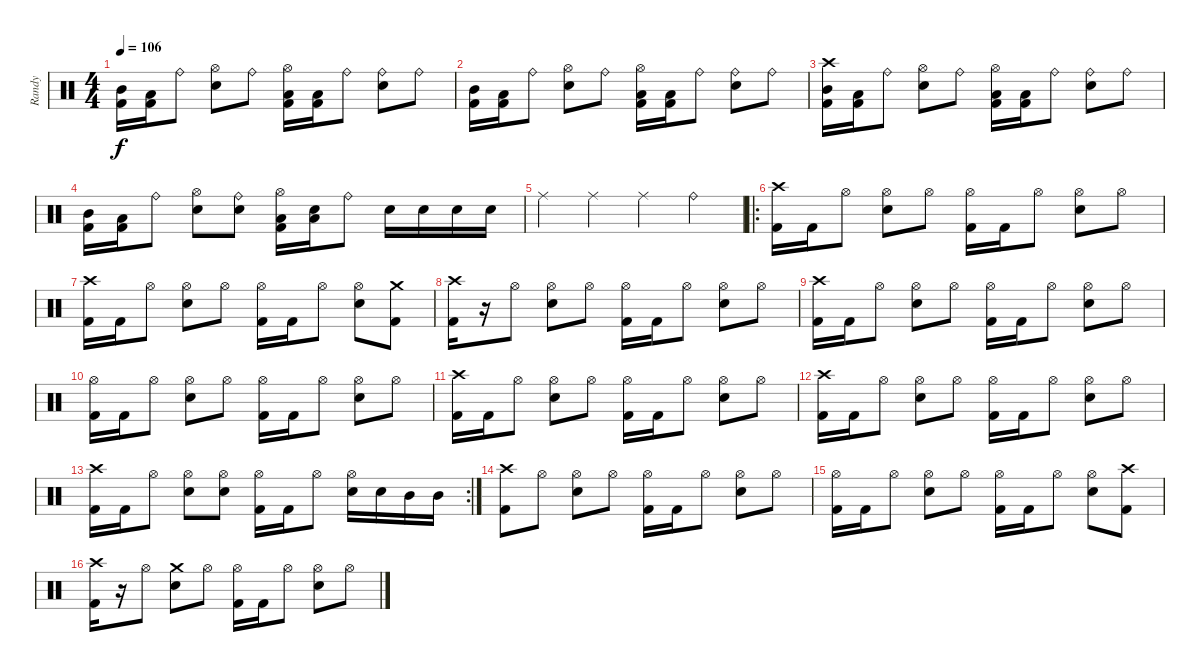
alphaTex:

\track ("Randy" "Randy") {instrument percussion}
\staff {score}
\articulation defaults
\ts (4 4)
\tempo 106
\clef neutral
\ks c
("Mid Tom (hit)" "Kick (hit) 2").16{dy f} ("Low Tom (hit)" "Kick (hit) 2").16 "Ride (bell)".8 ("Hi-Hat (open)" "Electric Snare (hit)").8 "Ride (bell)".8 ("Hi-Hat (open)" "Low Tom (hit)" "Kick (hit) 2").16 ("Low Tom (hit)" "Kick (hit) 2").16 "Ride (bell)".8 ("Ride (bell)" "Electric Snare (hit)").8 "Ride (bell)".8 |
("Mid Tom (hit)" "Kick (hit) 2").16 ("Low Tom (hit)" "Kick (hit) 2").16 "Ride (bell)".8 ("Hi-Hat (open)" "Electric Snare (hit)").8 "Ride (bell)".8 ("Hi-Hat (open)" "Low Tom (hit)" "Kick (hit) 2").16 ("Low Tom (hit)" "Kick (hit) 2").16 "Ride (bell)".8 ("Ride (bell)" "Electric Snare (hit)").8 "Ride (bell)".8 |
("Crash high (hit)" "Mid Tom (hit)" "Kick (hit) 2").16 ("Low Tom (hit)" "Kick (hit) 2").16 "Ride (bell)".8 ("Hi-Hat (open)" "Electric Snare (hit)").8 "Ride (bell)".8 ("Hi-Hat (open)" "Low Tom (hit)" "Kick (hit) 2").16 ("Low Tom (hit)" "Kick (hit) 2").16 "Ride (bell)".8 ("Ride (bell)" "Electric Snare (hit)").8 "Ride (bell)".8 |
("Mid Tom (hit)" "Kick (hit) 2").16 ("Low Tom (hit)" "Kick (hit) 2").16 "Ride (bell)".8 ("Hi-Hat (open)" "Electric Snare (hit)").8 ("Ride (bell)" "Electric Snare (hit)").8 ("Hi-Hat (open)" "Low Tom (hit)" "Kick (hit) 2").16 ("Low Tom (hit)" "Electric Snare (hit)").16 "Ride (bell)".8 "Electric Snare (hit)".16 "Electric Snare (hit)".16 "Electric Snare (hit)".16 "Electric Snare (hit)".16 |
"Ride (middle)".4 "Ride (middle)".4 "Ride (middle)".4 "Ride (bell)".4 |
\ro
("Crash high (hit)" "Kick (hit) 2").16 "Kick (hit) 2".16 "Hi-Hat (open)".8 ("Hi-Hat (open)" "Electric Snare (hit)").8 "Hi-Hat (open)".8 ("Hi-Hat (open)" "Kick (hit) 2").16 "Kick (hit) 2".16 "Hi-Hat (open)".8 ("Hi-Hat (open)" "Electric Snare (hit)").8 "Hi-Hat (open)".8 |
("Crash high (hit)" "Kick (hit) 2").16 "Kick (hit) 2".16 "Hi-Hat (open)".8 ("Hi-Hat (open)" "Electric Snare (hit)").8 "Hi-Hat (open)".8 ("Hi-Hat (open)" "Kick (hit) 2").16 "Kick (hit) 2".16 "Hi-Hat (open)".8 ("Hi-Hat (open)" "Electric Snare (hit)").8 ("Crash medium (hit)" "Kick (hit) 2").8 |
("Crash high (hit)" "Kick (hit) 2").16 r.16 "Hi-Hat (open)".8 ("Hi-Hat (open)" "Electric Snare (hit)").8 "Hi-Hat (open)".8 ("Hi-Hat (open)" "Kick (hit) 2").16 "Kick (hit) 2".16 "Hi-Hat (open)".8 ("Hi-Hat (open)" "Electric Snare (hit)").8 "Hi-Hat (open)".8 |
("Crash high (hit)" "Kick (hit) 2").16 "Kick (hit) 2".16 "Hi-Hat (open)".8 ("Hi-Hat (open)" "Electric Snare (hit)").8 "Hi-Hat (open)".8 ("Hi-Hat (open)" "Kick (hit) 2").16 "Kick (hit) 2".16 "Hi-Hat (open)".8 ("Hi-Hat (open)" "Electric Snare (hit)").8 "Hi-Hat (open)".8 |
("Hi-Hat (open)" "Kick (hit) 2").16 "Kick (hit) 2".16 "Hi-Hat (open)".8 ("Hi-Hat (open)" "Electric Snare (hit)").8 "Hi-Hat (open)".8 ("Hi-Hat (open)" "Kick (hit) 2").16 "Kick (hit) 2".16 "Hi-Hat (open)".8 ("Hi-Hat (open)" "Electric Snare (hit)").8 "Hi-Hat (open)".8 |
("Crash high (hit)" "Kick (hit) 2").16 "Kick (hit) 2".16 "Hi-Hat (open)".8 ("Hi-Hat (open)" "Electric Snare (hit)").8 "Hi-Hat (open)".8 ("Hi-Hat (open)" "Kick (hit) 2").16 "Kick (hit) 2".16 "Hi-Hat (open)".8 ("Hi-Hat (open)" "Electric Snare (hit)").8 "Hi-Hat (open)".8 |
("Crash high (hit)" "Kick (hit) 2").16 "Kick (hit) 2".16 "Hi-Hat (open)".8 ("Hi-Hat (open)" "Electric Snare (hit)").8 "Hi-Hat (open)".8 ("Hi-Hat (open)" "Kick (hit) 2").16 "Kick (hit) 2".16 "Hi-Hat (open)".8 ("Hi-Hat (open)" "Electric Snare (hit)").8 "Hi-Hat (open)".8 |
\rc 2
("Crash high (hit)" "Kick (hit) 2").16 "Kick (hit) 2".16 "Hi-Hat (open)".8 ("Hi-Hat (open)" "Electric Snare (hit)").8 ("Hi-Hat (open)" "Electric Snare (hit)").8 ("Hi-Hat (open)" "Kick (hit) 2").16 "Kick (hit) 2".16 "Hi-Hat (open)".8 ("Hi-Hat (open)" "Electric Snare (hit)").16 "Electric Snare (hit)".16 "Mid Tom (hit)".16 "Mid Tom (hit)".16 |
("Crash high (hit)" "Kick (hit) 2").8 "Hi-Hat (open)".8 ("Hi-Hat (open)" "Electric Snare (hit)").8 "Hi-Hat (open)".8 ("Hi-Hat (open)" "Kick (hit) 2").16 "Kick (hit) 2".16 "Hi-Hat (open)".8 ("Hi-Hat (open)" "Electric Snare (hit)").8 "Hi-Hat (open)".8 |
("Hi-Hat (open)" "Kick (hit) 2").16 "Kick (hit) 2".16 "Hi-Hat (open)".8 ("Hi-Hat (open)" "Electric Snare (hit)").8 "Hi-Hat (open)".8 ("Hi-Hat (open)" "Kick (hit) 2").16 "Kick (hit) 2".16 "Hi-Hat (open)".8 ("Hi-Hat (open)" "Electric Snare (hit)").8 ("Crash high (hit)" "Kick (hit) 2").8 |
("Crash high (hit)" "Kick (hit) 2").16 r.16 "Hi-Hat (open)".8 ("Crash medium (hit)" "Electric Snare (hit)").8 "Hi-Hat (open)".8 ("Hi-Hat (open)" "Kick (hit) 2").16 "Kick (hit) 2".16 "Hi-Hat (open)".8 ("Hi-Hat (open)" "Electric Snare (hit)").8 "Hi-Hat (open)".8
